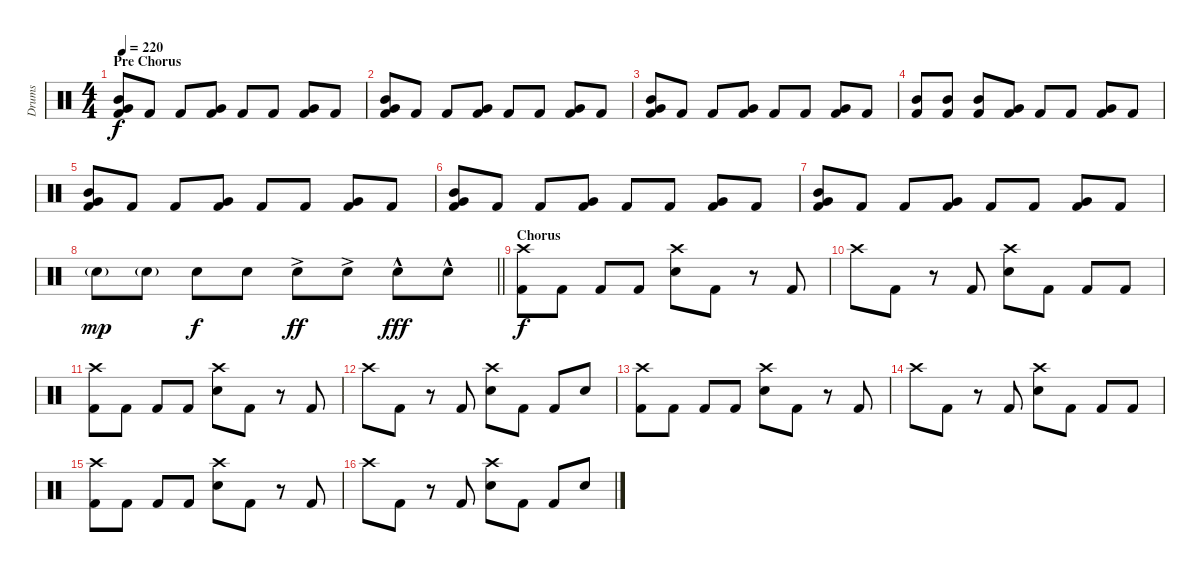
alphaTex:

\track ("Drums" "Drums") {instrument percussion}
\staff {score}
\articulation defaults
\ts (4 4)
\section ("" "Pre Chorus")
\tempo 220
\clef neutral
\ks c
("Kick (hit) 2" "Mid Tom (hit)" "Very Low Tom (hit)").8{dy f} "Kick (hit) 2".8 "Kick (hit) 2".8 ("Kick (hit) 2" "Very Low Tom (hit)").8 "Kick (hit) 2".8 "Kick (hit) 2".8 ("Kick (hit) 2" "Very Low Tom (hit)").8 "Kick (hit) 2".8 |
("Kick (hit) 2" "Mid Tom (hit)" "Very Low Tom (hit)").8 "Kick (hit) 2".8 "Kick (hit) 2".8 ("Kick (hit) 2" "Very Low Tom (hit)").8 "Kick (hit) 2".8 "Kick (hit) 2".8 ("Kick (hit) 2" "Very Low Tom (hit)").8 "Kick (hit) 2".8 |
("Kick (hit) 2" "Mid Tom (hit)" "Very Low Tom (hit)").8 "Kick (hit) 2".8 "Kick (hit) 2".8 ("Kick (hit) 2" "Very Low Tom (hit)").8 "Kick (hit) 2".8 "Kick (hit) 2".8 ("Kick (hit) 2" "Very Low Tom (hit)").8 "Kick (hit) 2".8 |
("Kick (hit) 2" "Mid Tom (hit)").8 ("Kick (hit) 2" "Mid Tom (hit)").8 ("Kick (hit) 2" "Mid Tom (hit)").8 ("Kick (hit) 2" "Very Low Tom (hit)").8 "Kick (hit) 2".8 "Kick (hit) 2".8 ("Kick (hit) 2" "Very Low Tom (hit)").8 "Kick (hit) 2".8 |
("Kick (hit) 2" "Mid Tom (hit)" "Very Low Tom (hit)").8 "Kick (hit) 2".8 "Kick (hit) 2".8 ("Kick (hit) 2" "Very Low Tom (hit)").8 "Kick (hit) 2".8 "Kick (hit) 2".8 ("Kick (hit) 2" "Very Low Tom (hit)").8 "Kick (hit) 2".8 |
("Kick (hit) 2" "Mid Tom (hit)" "Very Low Tom (hit)").8 "Kick (hit) 2".8 "Kick (hit) 2".8 ("Kick (hit) 2" "Very Low Tom (hit)").8 "Kick (hit) 2".8 "Kick (hit) 2".8 ("Kick (hit) 2" "Very Low Tom (hit)").8 "Kick (hit) 2".8 |
("Kick (hit) 2" "Mid Tom (hit)" "Very Low Tom (hit)").8 "Kick (hit) 2".8 "Kick (hit) 2".8 ("Kick (hit) 2" "Very Low Tom (hit)").8 "Kick (hit) 2".8 "Kick (hit) 2".8 ("Kick (hit) 2" "Very Low Tom (hit)").8 "Kick (hit) 2".8 |
\barLineRight lightlight "Electric Snare (hit)"{g}.8{dy mp} "Electric Snare (hit)"{g}.8 "Electric Snare (hit)".8{dy f} "Electric Snare (hit)".8 "Electric Snare (hit)"{ac}.8{dy ff} "Electric Snare (hit)"{ac}.8 "Electric Snare (hit)"{hac}.8{dy fff} "Electric Snare (hit)"{hac}.8
|
\section ("" "Chorus")
("Kick (hit) 2" "Crash high (hit)").8{dy f} "Kick (hit) 2".8 "Kick (hit) 2".8 "Kick (hit) 2".8 ("Electric Snare (hit)" "Crash high (hit)").8 "Kick (hit) 2".8 r.8 "Kick (hit) 2".8 |
"Crash high (hit)".8 "Kick (hit) 2".8 r.8 "Kick (hit) 2".8 ("Electric Snare (hit)" "Crash high (hit)").8 "Kick (hit) 2".8 "Kick (hit) 2".8 "Kick (hit) 2".8 |
("Kick (hit) 2" "Crash high (hit)").8 "Kick (hit) 2".8 "Kick (hit) 2".8 "Kick (hit) 2".8 ("Electric Snare (hit)" "Crash high (hit)").8 "Kick (hit) 2".8 r.8 "Kick (hit) 2".8 |
"Crash high (hit)".8 "Kick (hit) 2".8 r.8 "Kick (hit) 2".8 ("Electric Snare (hit)" "Crash high (hit)").8 "Kick (hit) 2".8 "Kick (hit) 2".8 "Electric Snare (hit)".8 |
("Kick (hit) 2" "Crash high (hit)").8 "Kick (hit) 2".8 "Kick (hit) 2".8 "Kick (hit) 2".8 ("Electric Snare (hit)" "Crash high (hit)").8 "Kick (hit) 2".8 r.8 "Kick (hit) 2".8 |
"Crash high (hit)".8 "Kick (hit) 2".8 r.8 "Kick (hit) 2".8 ("Electric Snare (hit)" "Crash high (hit)").8 "Kick (hit) 2".8 "Kick (hit) 2".8 "Kick (hit) 2".8 |
("Kick (hit) 2" "Crash high (hit)").8 "Kick (hit) 2".8 "Kick (hit) 2".8 "Kick (hit) 2".8 ("Electric Snare (hit)" "Crash high (hit)").8 "Kick (hit) 2".8 r.8 "Kick (hit) 2".8 |
"Crash high (hit)".8 "Kick (hit) 2".8 r.8 "Kick (hit) 2".8 ("Electric Snare (hit)" "Crash high (hit)").8 "Kick (hit) 2".8 "Kick (hit) 2".8 "Electric Snare (hit)".8
